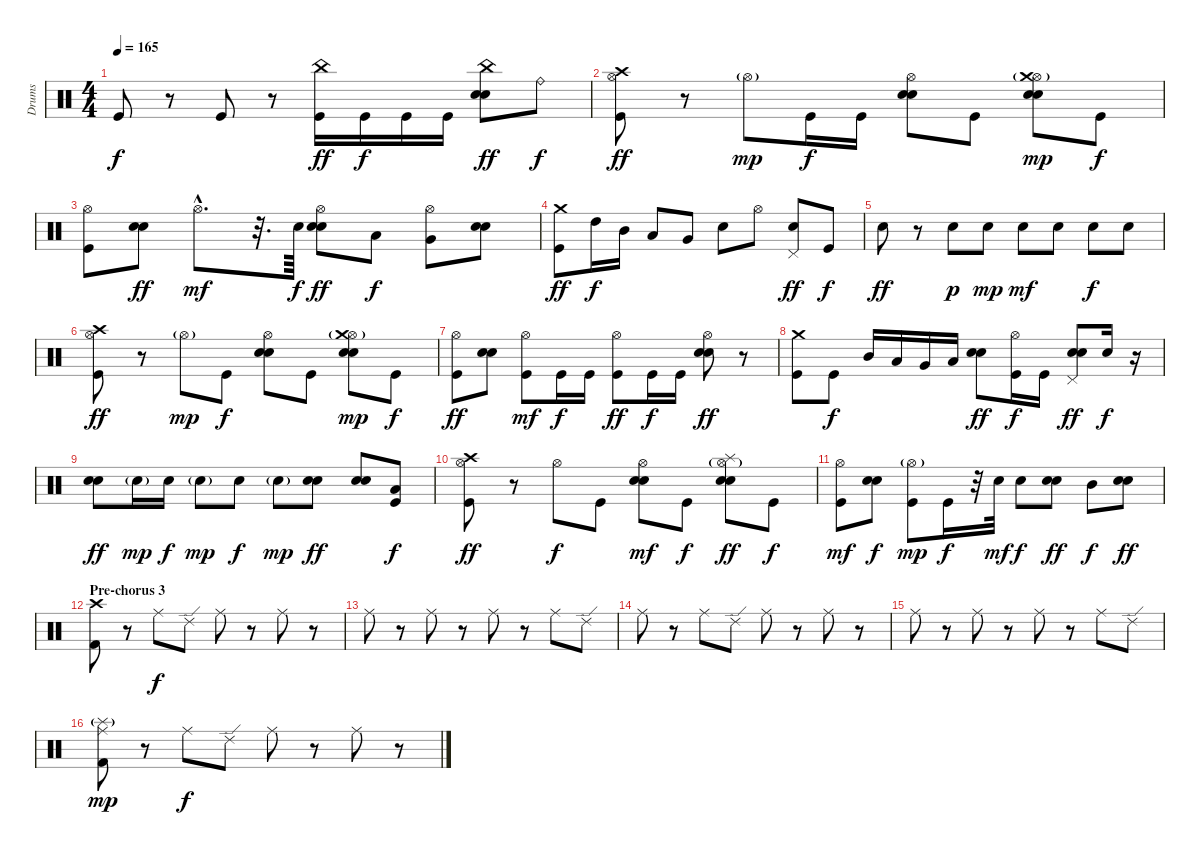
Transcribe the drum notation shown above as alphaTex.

\track ("Drums" "Drums") {instrument percussion}
\staff {score}
\articulation defaults
\ts (4 4)
\tempo 165
\clef neutral
\ks c "Kick (hit)".8{dy f}
r.8 "Kick (hit)".8 r.8 ("Kick (hit)" "China (hit)").16{dy ff} "Kick (hit)".16{dy f} "Kick (hit)".16 "Kick (hit)".16 ("Electric Snare (hit)" "Electric Snare (hit)" "China (hit)").8{dy ff} "Ride (bell)".8{dy f} |
("Kick (hit)" "Hi-Hat (open)" "Crash high (hit)").8{dy ff} r.8 "Hi-Hat (open)"{g}.8{dy mp} "Kick (hit)".16{dy f} "Kick (hit)".16 ("Electric Snare (hit)" "Electric Snare (hit)" "Hi-Hat (open)").8 "Kick (hit)".8 ("Electric Snare (hit)" "Electric Snare (hit)" "Hi-Hat (open)"{g} "Crash medium (hit)").8{dy mp} "Kick (hit)".8{dy f} |
("Kick (hit)" "Hi-Hat (open)").8 ("Electric Snare (hit)" "Electric Snare (hit)").8{dy ff} "Hi-Hat (open)"{hac}.8{d dy mf} r.32{d} "Electric Snare (hit)".64{dy f} ("Electric Snare (hit)" "Electric Snare (hit)" "Hi-Hat (open)").8{dy ff} "Low Tom (hit)".8{dy f} ("Very Low Tom (hit)" "Hi-Hat (open)").8 ("Electric Snare (hit)" "Electric Snare (hit)").8 |
("Kick (hit)" "Crash medium (hit)").8{dy ff} "High Tom (hit)".16{dy f} "Mid Tom (hit)".16 "Low Tom (hit)".8 "Very Low Tom (hit)".8 "Electric Snare (hit)".8 "Hi-Hat (open)".8 ("Electric Snare (hit)" "Pedal Hi-Hat (hit)").8{dy ff} "Kick (hit)".8{dy f} |
"Electric Snare (hit)".8{dy ff} r.8 "Electric Snare (hit)".8{dy p} "Electric Snare (hit)".8{dy mp} "Electric Snare (hit)".8{dy mf} "Electric Snare (hit)".8 "Electric Snare (hit)".8{dy f} "Electric Snare (hit)".8 |
("Kick (hit)" "Hi-Hat (open)" "Crash high (hit)").8{dy ff} r.8 "Hi-Hat (open)"{g}.8{dy mp} "Kick (hit)".8{dy f} ("Electric Snare (hit)" "Electric Snare (hit)" "Hi-Hat (open)").8 "Kick (hit)".8 ("Electric Snare (hit)" "Electric Snare (hit)" "Hi-Hat (open)"{g} "Crash medium (hit)").8{dy mp} "Kick (hit)".8{dy f} |
("Kick (hit)" "Hi-Hat (open)").8{dy ff} ("Electric Snare (hit)" "Electric Snare (hit)").8 ("Kick (hit)" "Hi-Hat (open)").8{dy mf} "Kick (hit)".16{dy f} "Kick (hit)".16 ("Kick (hit)" "Hi-Hat (open)").8{dy ff} "Kick (hit)".16{dy f} "Kick (hit)".16 ("Electric Snare (hit)" "Electric Snare (hit)" "Hi-Hat (open)").8{dy ff} r.8 |
("Kick (hit)" "Crash medium (hit)").8 "Kick (hit)".8{dy f} "Mid Tom (hit)".16 "Low Tom (hit)".16 "Very Low Tom (hit)".16 "Low Floor Tom (hit)".16 ("Electric Snare (hit)" "Electric Snare (hit)").8{dy ff} ("Kick (hit)" "Hi-Hat (open)").16{dy f} "Kick (hit)".16 ("Electric Snare (hit)" "Pedal Hi-Hat (hit)" "Electric Snare (hit)").8{dy ff} "Electric Snare (hit)".16{dy f} r.16 |
("Electric Snare (hit)" "Electric Snare (hit)").8{dy ff} "Electric Snare (hit)"{g}.16{dy mp} "Electric Snare (hit)".16{dy f} "Electric Snare (hit)"{g}.8{dy mp} "Electric Snare (hit)".8{dy f} "Electric Snare (hit)"{g}.8{dy mp} ("Electric Snare (hit)" "Electric Snare (hit)").8{dy ff} ("Electric Snare (hit)" "Electric Snare (hit)").8 ("Kick (hit)" "Low Floor Tom (hit)").8{dy f} |
("Kick (hit)" "Hi-Hat (open)" "Crash high (hit)").8{dy ff} r.8 "Hi-Hat (open)".8{dy f} "Kick (hit)".8 ("Electric Snare (hit)" "Electric Snare (hit)" "Hi-Hat (open)").8{dy mf} "Kick (hit)".8{dy f} ("Electric Snare (hit)" "Electric Snare (hit)" "Hi-Hat (open)"{g} "Splash (hit)").8{dy ff} "Kick (hit)".8{dy f} |
("Kick (hit)" "Hi-Hat (open)").8{dy mf} ("Electric Snare (hit)" "Electric Snare (hit)").8{dy f} ("Kick (hit)" "Hi-Hat (open)"{g}).8{dy mp} "Kick (hit)".16{dy f} r.32 "Electric Snare (hit)".32{dy mf} "Electric Snare (hit)".8{dy f} ("Electric Snare (hit)" "Electric Snare (hit)").8{dy ff} "Mid Tom (hit)".8{dy f} ("Electric Snare (hit)" "Electric Snare (hit)").8{dy ff} |
\section ("" "Pre-chorus 3")
("Kick (hit) 2" "Crash high (hit)").8{volume 16} r.8 "Ride (middle)".8{dy f} "Ride (edge) 2".8 "Ride (middle)".8 r.8 "Ride (middle)".8 r.8 |
"Ride (middle)".8 r.8 "Ride (middle)".8 r.8 "Ride (middle)".8 r.8 "Ride (middle)".8 "Ride (edge) 2".8 |
"Ride (middle)".8 r.8 "Ride (middle)".8 "Ride (edge) 2".8 "Ride (middle)".8 r.8 "Ride (middle)".8 r.8 |
"Ride (middle)".8 r.8 "Ride (middle)".8 r.8 "Ride (middle)".8 r.8 "Ride (middle)".8 "Ride (edge) 2".8 |
("Kick (hit) 2" "Ride (middle)" "Splash (hit)"{g}).8{dy mp} r.8 "Ride (middle)".8{dy f} "Ride (edge) 2".8 "Ride (middle)".8 r.8 "Ride (middle)".8 r.8
